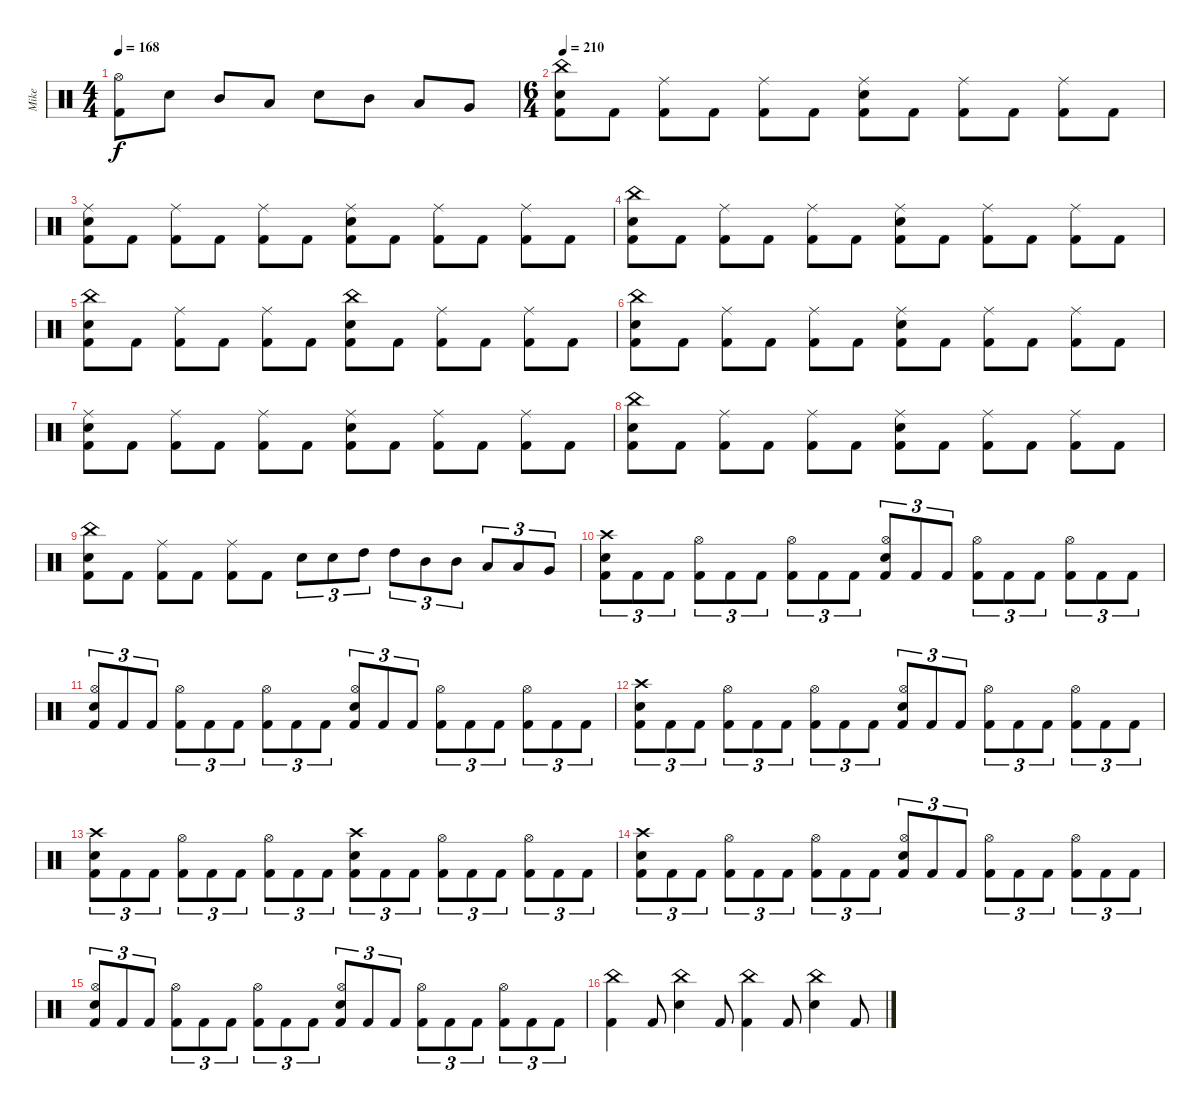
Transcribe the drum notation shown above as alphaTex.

\track ("Mike" "Mike") {instrument percussion}
\staff {score}
\articulation defaults
\ts (4 4)
\tempo 168
\clef neutral
\ks c
("Kick (hit) 2" "Hi-Hat (open)").8{dy f} "Electric Snare (hit)".8 "Mid Tom (hit)".8 "Low Tom (hit)".8 "Electric Snare (hit)".8 "Mid Tom (hit)".8 "Low Tom (hit)".8 "Very Low Tom (hit)".8 |
\ts (6 4)
\tempo 210
("Kick (hit) 2" "Electric Snare (hit)" "China (hit)").8 "Kick (hit) 2".8 ("Kick (hit) 2" "Ride (middle)").8 "Kick (hit) 2".8 ("Kick (hit) 2" "Ride (middle)").8 "Kick (hit) 2".8 ("Kick (hit) 2" "Electric Snare (hit)" "Ride (middle)").8 "Kick (hit) 2".8 ("Kick (hit) 2" "Ride (middle)").8 "Kick (hit) 2".8 ("Kick (hit) 2" "Ride (middle)").8 "Kick (hit) 2".8 |
("Kick (hit) 2" "Electric Snare (hit)" "Ride (middle)").8 "Kick (hit) 2".8 ("Kick (hit) 2" "Ride (middle)").8 "Kick (hit) 2".8 ("Kick (hit) 2" "Ride (middle)").8 "Kick (hit) 2".8 ("Kick (hit) 2" "Electric Snare (hit)" "Ride (middle)").8 "Kick (hit) 2".8 ("Kick (hit) 2" "Ride (middle)").8 "Kick (hit) 2".8 ("Kick (hit) 2" "Ride (middle)").8 "Kick (hit) 2".8 |
("Kick (hit) 2" "Electric Snare (hit)" "China (hit)").8 "Kick (hit) 2".8 ("Kick (hit) 2" "Ride (middle)").8 "Kick (hit) 2".8 ("Kick (hit) 2" "Ride (middle)").8 "Kick (hit) 2".8 ("Kick (hit) 2" "Electric Snare (hit)" "Ride (middle)").8 "Kick (hit) 2".8 ("Kick (hit) 2" "Ride (middle)").8 "Kick (hit) 2".8 ("Kick (hit) 2" "Ride (middle)").8 "Kick (hit) 2".8 |
("Kick (hit) 2" "Electric Snare (hit)" "China (hit)").8 "Kick (hit) 2".8 ("Kick (hit) 2" "Ride (middle)").8 "Kick (hit) 2".8 ("Kick (hit) 2" "Ride (middle)").8 "Kick (hit) 2".8 ("Kick (hit) 2" "Electric Snare (hit)" "China (hit)").8 "Kick (hit) 2".8 ("Kick (hit) 2" "Ride (middle)").8 "Kick (hit) 2".8 ("Kick (hit) 2" "Ride (middle)").8 "Kick (hit) 2".8 |
("Kick (hit) 2" "Electric Snare (hit)" "China (hit)").8 "Kick (hit) 2".8 ("Kick (hit) 2" "Ride (middle)").8 "Kick (hit) 2".8 ("Kick (hit) 2" "Ride (middle)").8 "Kick (hit) 2".8 ("Kick (hit) 2" "Electric Snare (hit)" "Ride (middle)").8 "Kick (hit) 2".8 ("Kick (hit) 2" "Ride (middle)").8 "Kick (hit) 2".8 ("Kick (hit) 2" "Ride (middle)").8 "Kick (hit) 2".8 |
("Kick (hit) 2" "Electric Snare (hit)" "Ride (middle)").8 "Kick (hit) 2".8 ("Kick (hit) 2" "Ride (middle)").8 "Kick (hit) 2".8 ("Kick (hit) 2" "Ride (middle)").8 "Kick (hit) 2".8 ("Kick (hit) 2" "Electric Snare (hit)" "Ride (middle)").8 "Kick (hit) 2".8 ("Kick (hit) 2" "Ride (middle)").8 "Kick (hit) 2".8 ("Kick (hit) 2" "Ride (middle)").8 "Kick (hit) 2".8 |
("Kick (hit) 2" "Electric Snare (hit)" "China (hit)").8 "Kick (hit) 2".8 ("Kick (hit) 2" "Ride (middle)").8 "Kick (hit) 2".8 ("Kick (hit) 2" "Ride (middle)").8 "Kick (hit) 2".8 ("Kick (hit) 2" "Electric Snare (hit)" "Ride (middle)").8 "Kick (hit) 2".8 ("Kick (hit) 2" "Ride (middle)").8 "Kick (hit) 2".8 ("Kick (hit) 2" "Ride (middle)").8 "Kick (hit) 2".8 |
("Kick (hit) 2" "Electric Snare (hit)" "China (hit)").8 "Kick (hit) 2".8 ("Kick (hit) 2" "Ride (middle)").8 "Kick (hit) 2".8 ("Kick (hit) 2" "Ride (middle)").8 "Kick (hit) 2".8 "Electric Snare (hit)".8{tu (3 2)} "Electric Snare (hit)".8{tu (3 2)} "High Tom (hit)".8{tu (3 2)} "High Tom (hit)".8{tu (3 2)} "Mid Tom (hit)".8{tu (3 2)} "Mid Tom (hit)".8{tu (3 2)} "Low Tom (hit)".8{tu (3 2)} "Low Tom (hit)".8{tu (3 2)} "Very Low Tom (hit)".8{tu (3 2)} |
("Kick (hit) 2" "Electric Snare (hit)" "Crash high (hit)").8{tu (3 2)} "Kick (hit) 2".8{tu (3 2)} "Kick (hit) 2".8{tu (3 2)} ("Kick (hit) 2" "Hi-Hat (open)").8{tu (3 2)} "Kick (hit) 2".8{tu (3 2)} "Kick (hit) 2".8{tu (3 2)} ("Kick (hit) 2" "Hi-Hat (open)").8{tu (3 2)} "Kick (hit) 2".8{tu (3 2)} "Kick (hit) 2".8{tu (3 2)} ("Kick (hit) 2" "Electric Snare (hit)" "Hi-Hat (open)").8{tu (3 2)} "Kick (hit) 2".8{tu (3 2)} "Kick (hit) 2".8{tu (3 2)} ("Kick (hit) 2" "Hi-Hat (open)").8{tu (3 2)} "Kick (hit) 2".8{tu (3 2)} "Kick (hit) 2".8{tu (3 2)} ("Kick (hit) 2" "Hi-Hat (open)").8{tu (3 2)} "Kick (hit) 2".8{tu (3 2)} "Kick (hit) 2".8{tu (3 2)} |
("Kick (hit) 2" "Electric Snare (hit)" "Hi-Hat (open)").8{tu (3 2)} "Kick (hit) 2".8{tu (3 2)} "Kick (hit) 2".8{tu (3 2)} ("Kick (hit) 2" "Hi-Hat (open)").8{tu (3 2)} "Kick (hit) 2".8{tu (3 2)} "Kick (hit) 2".8{tu (3 2)} ("Kick (hit) 2" "Hi-Hat (open)").8{tu (3 2)} "Kick (hit) 2".8{tu (3 2)} "Kick (hit) 2".8{tu (3 2)} ("Kick (hit) 2" "Electric Snare (hit)" "Hi-Hat (open)").8{tu (3 2)} "Kick (hit) 2".8{tu (3 2)} "Kick (hit) 2".8{tu (3 2)} ("Kick (hit) 2" "Hi-Hat (open)").8{tu (3 2)} "Kick (hit) 2".8{tu (3 2)} "Kick (hit) 2".8{tu (3 2)} ("Kick (hit) 2" "Hi-Hat (open)").8{tu (3 2)} "Kick (hit) 2".8{tu (3 2)} "Kick (hit) 2".8{tu (3 2)} |
("Kick (hit) 2" "Electric Snare (hit)" "Crash high (hit)").8{tu (3 2)} "Kick (hit) 2".8{tu (3 2)} "Kick (hit) 2".8{tu (3 2)} ("Kick (hit) 2" "Hi-Hat (open)").8{tu (3 2)} "Kick (hit) 2".8{tu (3 2)} "Kick (hit) 2".8{tu (3 2)} ("Kick (hit) 2" "Hi-Hat (open)").8{tu (3 2)} "Kick (hit) 2".8{tu (3 2)} "Kick (hit) 2".8{tu (3 2)} ("Kick (hit) 2" "Electric Snare (hit)" "Hi-Hat (open)").8{tu (3 2)} "Kick (hit) 2".8{tu (3 2)} "Kick (hit) 2".8{tu (3 2)} ("Kick (hit) 2" "Hi-Hat (open)").8{tu (3 2)} "Kick (hit) 2".8{tu (3 2)} "Kick (hit) 2".8{tu (3 2)} ("Kick (hit) 2" "Hi-Hat (open)").8{tu (3 2)} "Kick (hit) 2".8{tu (3 2)} "Kick (hit) 2".8{tu (3 2)} |
("Kick (hit) 2" "Electric Snare (hit)" "Crash high (hit)").8{tu (3 2)} "Kick (hit) 2".8{tu (3 2)} "Kick (hit) 2".8{tu (3 2)} ("Kick (hit) 2" "Hi-Hat (open)").8{tu (3 2)} "Kick (hit) 2".8{tu (3 2)} "Kick (hit) 2".8{tu (3 2)} ("Kick (hit) 2" "Hi-Hat (open)").8{tu (3 2)} "Kick (hit) 2".8{tu (3 2)} "Kick (hit) 2".8{tu (3 2)} ("Kick (hit) 2" "Electric Snare (hit)" "Crash high (hit)").8{tu (3 2)} "Kick (hit) 2".8{tu (3 2)} "Kick (hit) 2".8{tu (3 2)} ("Kick (hit) 2" "Hi-Hat (open)").8{tu (3 2)} "Kick (hit) 2".8{tu (3 2)} "Kick (hit) 2".8{tu (3 2)} ("Kick (hit) 2" "Hi-Hat (open)").8{tu (3 2)} "Kick (hit) 2".8{tu (3 2)} "Kick (hit) 2".8{tu (3 2)} |
("Kick (hit) 2" "Electric Snare (hit)" "Crash high (hit)").8{tu (3 2)} "Kick (hit) 2".8{tu (3 2)} "Kick (hit) 2".8{tu (3 2)} ("Kick (hit) 2" "Hi-Hat (open)").8{tu (3 2)} "Kick (hit) 2".8{tu (3 2)} "Kick (hit) 2".8{tu (3 2)} ("Kick (hit) 2" "Hi-Hat (open)").8{tu (3 2)} "Kick (hit) 2".8{tu (3 2)} "Kick (hit) 2".8{tu (3 2)} ("Kick (hit) 2" "Electric Snare (hit)" "Hi-Hat (open)").8{tu (3 2)} "Kick (hit) 2".8{tu (3 2)} "Kick (hit) 2".8{tu (3 2)} ("Kick (hit) 2" "Hi-Hat (open)").8{tu (3 2)} "Kick (hit) 2".8{tu (3 2)} "Kick (hit) 2".8{tu (3 2)} ("Kick (hit) 2" "Hi-Hat (open)").8{tu (3 2)} "Kick (hit) 2".8{tu (3 2)} "Kick (hit) 2".8{tu (3 2)} |
("Kick (hit) 2" "Electric Snare (hit)" "Hi-Hat (open)").8{tu (3 2)} "Kick (hit) 2".8{tu (3 2)} "Kick (hit) 2".8{tu (3 2)} ("Kick (hit) 2" "Hi-Hat (open)").8{tu (3 2)} "Kick (hit) 2".8{tu (3 2)} "Kick (hit) 2".8{tu (3 2)} ("Kick (hit) 2" "Hi-Hat (open)").8{tu (3 2)} "Kick (hit) 2".8{tu (3 2)} "Kick (hit) 2".8{tu (3 2)} ("Kick (hit) 2" "Electric Snare (hit)" "Hi-Hat (open)").8{tu (3 2)} "Kick (hit) 2".8{tu (3 2)} "Kick (hit) 2".8{tu (3 2)} ("Kick (hit) 2" "Hi-Hat (open)").8{tu (3 2)} "Kick (hit) 2".8{tu (3 2)} "Kick (hit) 2".8{tu (3 2)} ("Kick (hit) 2" "Hi-Hat (open)").8{tu (3 2)} "Kick (hit) 2".8{tu (3 2)} "Kick (hit) 2".8{tu (3 2)} |
("Kick (hit) 2" "China (hit)").4 "Kick (hit) 2".8 ("Electric Snare (hit)" "China (hit)").4 "Kick (hit) 2".8 ("Kick (hit) 2" "China (hit)").4 "Kick (hit) 2".8 ("Electric Snare (hit)" "China (hit)").4 "Kick (hit) 2".8
